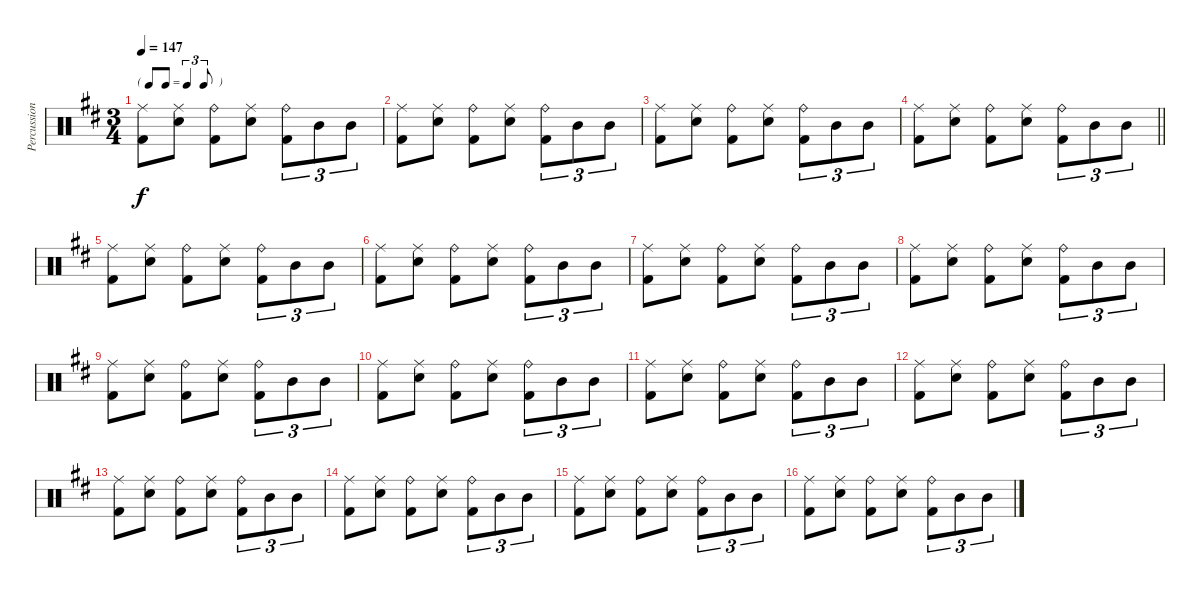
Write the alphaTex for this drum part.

\track ("Percussion" "Percussion") {instrument percussion}
\staff {score}
\articulation defaults
\ts (3 4)
\tf triplet8th
\tempo 147
\clef neutral
\ks d
("Ride (middle)" "Kick (hit) 2").8{dy f} ("Ride (middle)" "Snare (hit) 2").8 ("Ride (bell)" "Kick (hit) 2").8 ("Ride (middle)" "Snare (hit) 2").8 ("Ride (bell)" "Kick (hit) 2").8{tu (3 2)} "Mid Tom (hit)".8{tu (3 2)} "Mid Tom (hit)".8{tu (3 2)} |
("Ride (middle)" "Kick (hit) 2").8 ("Ride (middle)" "Snare (hit) 2").8 ("Ride (bell)" "Kick (hit) 2").8 ("Ride (middle)" "Snare (hit) 2").8 ("Ride (bell)" "Kick (hit) 2").8{tu (3 2)} "Mid Tom (hit)".8{tu (3 2)} "Mid Tom (hit)".8{tu (3 2)} |
("Ride (middle)" "Kick (hit) 2").8 ("Ride (middle)" "Snare (hit) 2").8 ("Ride (bell)" "Kick (hit) 2").8 ("Ride (middle)" "Snare (hit) 2").8 ("Ride (bell)" "Kick (hit) 2").8{tu (3 2)} "Mid Tom (hit)".8{tu (3 2)} "Mid Tom (hit)".8{tu (3 2)} |
\barLineRight lightlight
("Ride (middle)" "Kick (hit) 2").8 ("Ride (middle)" "Snare (hit) 2").8 ("Ride (bell)" "Kick (hit) 2").8 ("Ride (middle)" "Snare (hit) 2").8 ("Ride (bell)" "Kick (hit) 2").8{tu (3 2)} "Mid Tom (hit)".8{tu (3 2)} "Mid Tom (hit)".8{tu (3 2)} |
("Ride (middle)" "Kick (hit) 2").8 ("Ride (middle)" "Snare (hit) 2").8 ("Ride (bell)" "Kick (hit) 2").8 ("Ride (middle)" "Snare (hit) 2").8 ("Ride (bell)" "Kick (hit) 2").8{tu (3 2)} "Mid Tom (hit)".8{tu (3 2)} "Mid Tom (hit)".8{tu (3 2)} |
("Ride (middle)" "Kick (hit) 2").8 ("Ride (middle)" "Snare (hit) 2").8 ("Ride (bell)" "Kick (hit) 2").8 ("Ride (middle)" "Snare (hit) 2").8 ("Ride (bell)" "Kick (hit) 2").8{tu (3 2)} "Mid Tom (hit)".8{tu (3 2)} "Mid Tom (hit)".8{tu (3 2)} |
("Ride (middle)" "Kick (hit) 2").8 ("Ride (middle)" "Snare (hit) 2").8 ("Ride (bell)" "Kick (hit) 2").8 ("Ride (middle)" "Snare (hit) 2").8 ("Ride (bell)" "Kick (hit) 2").8{tu (3 2)} "Mid Tom (hit)".8{tu (3 2)} "Mid Tom (hit)".8{tu (3 2)} |
("Ride (middle)" "Kick (hit) 2").8 ("Ride (middle)" "Snare (hit) 2").8 ("Ride (bell)" "Kick (hit) 2").8 ("Ride (middle)" "Snare (hit) 2").8 ("Ride (bell)" "Kick (hit) 2").8{tu (3 2)} "Mid Tom (hit)".8{tu (3 2)} "Mid Tom (hit)".8{tu (3 2)} |
("Ride (middle)" "Kick (hit) 2").8 ("Ride (middle)" "Snare (hit) 2").8 ("Ride (bell)" "Kick (hit) 2").8 ("Ride (middle)" "Snare (hit) 2").8 ("Ride (bell)" "Kick (hit) 2").8{tu (3 2)} "Mid Tom (hit)".8{tu (3 2)} "Mid Tom (hit)".8{tu (3 2)} |
("Ride (middle)" "Kick (hit) 2").8 ("Ride (middle)" "Snare (hit) 2").8 ("Ride (bell)" "Kick (hit) 2").8 ("Ride (middle)" "Snare (hit) 2").8 ("Ride (bell)" "Kick (hit) 2").8{tu (3 2)} "Mid Tom (hit)".8{tu (3 2)} "Mid Tom (hit)".8{tu (3 2)} |
("Ride (middle)" "Kick (hit) 2").8 ("Ride (middle)" "Snare (hit) 2").8 ("Ride (bell)" "Kick (hit) 2").8 ("Ride (middle)" "Snare (hit) 2").8 ("Ride (bell)" "Kick (hit) 2").8{tu (3 2)} "Mid Tom (hit)".8{tu (3 2)} "Mid Tom (hit)".8{tu (3 2)} |
("Ride (middle)" "Kick (hit) 2").8 ("Ride (middle)" "Snare (hit) 2").8 ("Ride (bell)" "Kick (hit) 2").8 ("Ride (middle)" "Snare (hit) 2").8 ("Ride (bell)" "Kick (hit) 2").8{tu (3 2)} "Mid Tom (hit)".8{tu (3 2)} "Mid Tom (hit)".8{tu (3 2)} |
("Ride (middle)" "Kick (hit) 2").8 ("Ride (middle)" "Snare (hit) 2").8 ("Ride (bell)" "Kick (hit) 2").8 ("Ride (middle)" "Snare (hit) 2").8 ("Ride (bell)" "Kick (hit) 2").8{tu (3 2)} "Mid Tom (hit)".8{tu (3 2)} "Mid Tom (hit)".8{tu (3 2)} |
("Ride (middle)" "Kick (hit) 2").8 ("Ride (middle)" "Snare (hit) 2").8 ("Ride (bell)" "Kick (hit) 2").8 ("Ride (middle)" "Snare (hit) 2").8 ("Ride (bell)" "Kick (hit) 2").8{tu (3 2)} "Mid Tom (hit)".8{tu (3 2)} "Mid Tom (hit)".8{tu (3 2)} |
("Ride (middle)" "Kick (hit) 2").8 ("Ride (middle)" "Snare (hit) 2").8 ("Ride (bell)" "Kick (hit) 2").8 ("Ride (middle)" "Snare (hit) 2").8 ("Ride (bell)" "Kick (hit) 2").8{tu (3 2)} "Mid Tom (hit)".8{tu (3 2)} "Mid Tom (hit)".8{tu (3 2)} |
("Ride (middle)" "Kick (hit) 2").8 ("Ride (middle)" "Snare (hit) 2").8 ("Ride (bell)" "Kick (hit) 2").8 ("Ride (middle)" "Snare (hit) 2").8 ("Ride (bell)" "Kick (hit) 2").8{tu (3 2)} "Mid Tom (hit)".8{tu (3 2)} "Mid Tom (hit)".8{tu (3 2)}
